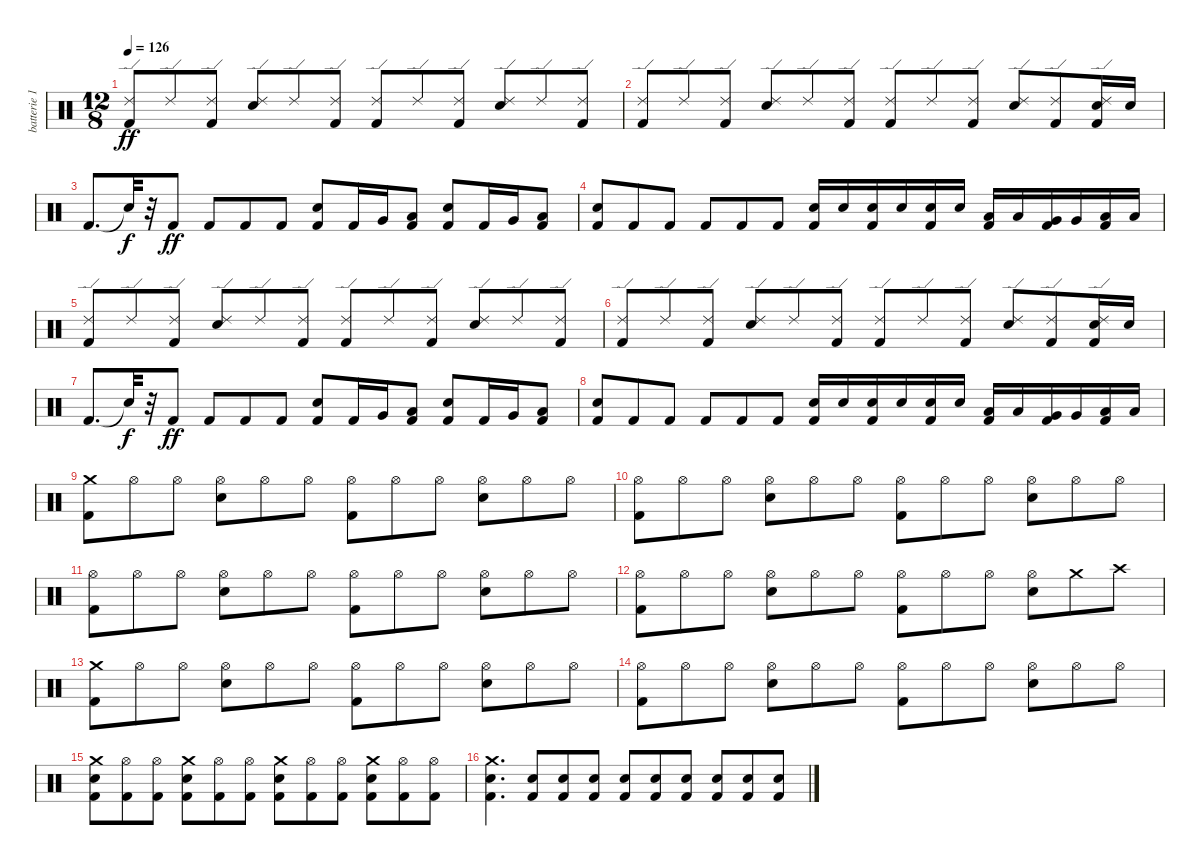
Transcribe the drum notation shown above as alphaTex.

\track ("batterie 1" "batterie 1") {instrument percussion}
\staff {score}
\articulation defaults
\ts (12 8)
\tempo 126
\clef neutral
\ks c
("Kick (hit) 2" "Ride (edge) 2").8{dy ff} "Ride (edge) 2".8 ("Kick (hit) 2" "Ride (edge) 2").8 ("Electric Snare (hit)" "Ride (edge) 2").8 "Ride (edge) 2".8 ("Kick (hit) 2" "Ride (edge) 2").8 ("Kick (hit) 2" "Ride (edge) 2").8 "Ride (edge) 2".8 ("Kick (hit) 2" "Ride (edge) 2").8 ("Electric Snare (hit)" "Ride (edge) 2").8 "Ride (edge) 2".8 ("Kick (hit) 2" "Ride (edge) 2").8 |
("Kick (hit) 2" "Ride (edge) 2").8 "Ride (edge) 2".8 ("Kick (hit) 2" "Ride (edge) 2").8 ("Electric Snare (hit)" "Ride (edge) 2").8 "Ride (edge) 2".8 ("Kick (hit) 2" "Ride (edge) 2").8 ("Kick (hit) 2" "Ride (edge) 2").8 "Ride (edge) 2".8 ("Kick (hit) 2" "Ride (edge) 2").8 ("Electric Snare (hit)" "Ride (edge) 2").8 ("Kick (hit) 2" "Ride (edge) 2").8 ("Kick (hit) 2" "Electric Snare (hit)" "Ride (edge) 2").16 "Electric Snare (hit)".16 |
"Kick (hit) 2".8{d} "Snare (hit)"{t}.32{dy f} r.32 "Kick (hit) 2".8{dy ff} "Kick (hit) 2".8 "Kick (hit) 2".8 "Kick (hit) 2".8 ("Kick (hit) 2" "Electric Snare (hit)").8 "Kick (hit) 2".16 "Very Low Tom (hit)".16 ("Kick (hit) 2" "Low Floor Tom (hit)").8 ("Kick (hit) 2" "Electric Snare (hit)").8 "Kick (hit) 2".16 "Very Low Tom (hit)".16 ("Kick (hit) 2" "Low Floor Tom (hit)").8 |
("Kick (hit) 2" "Electric Snare (hit)").8 "Kick (hit) 2".8 "Kick (hit) 2".8 "Kick (hit) 2".8 "Kick (hit) 2".8 "Kick (hit) 2".8 ("Kick (hit) 2" "Electric Snare (hit)").16 "Electric Snare (hit)".16 ("Kick (hit) 2" "Electric Snare (hit)").16 "Electric Snare (hit)".16 ("Kick (hit) 2" "Electric Snare (hit)").16 "Electric Snare (hit)".16 ("Kick (hit) 2" "Low Tom (hit)").16 "Low Tom (hit)".16 ("Kick (hit) 2" "Very Low Tom (hit)").16 "Very Low Tom (hit)".16 ("Kick (hit) 2" "Low Floor Tom (hit)").16 "Low Floor Tom (hit)".16 |
("Kick (hit) 2" "Ride (edge) 2").8 "Ride (edge) 2".8 ("Kick (hit) 2" "Ride (edge) 2").8 ("Electric Snare (hit)" "Ride (edge) 2").8 "Ride (edge) 2".8 ("Kick (hit) 2" "Ride (edge) 2").8 ("Kick (hit) 2" "Ride (edge) 2").8 "Ride (edge) 2".8 ("Kick (hit) 2" "Ride (edge) 2").8 ("Electric Snare (hit)" "Ride (edge) 2").8 "Ride (edge) 2".8 ("Kick (hit) 2" "Ride (edge) 2").8 |
("Kick (hit) 2" "Ride (edge) 2").8 "Ride (edge) 2".8 ("Kick (hit) 2" "Ride (edge) 2").8 ("Electric Snare (hit)" "Ride (edge) 2").8 "Ride (edge) 2".8 ("Kick (hit) 2" "Ride (edge) 2").8 ("Kick (hit) 2" "Ride (edge) 2").8 "Ride (edge) 2".8 ("Kick (hit) 2" "Ride (edge) 2").8 ("Electric Snare (hit)" "Ride (edge) 2").8 ("Kick (hit) 2" "Ride (edge) 2").8 ("Kick (hit) 2" "Electric Snare (hit)" "Ride (edge) 2").16 "Electric Snare (hit)".16 |
"Kick (hit) 2".8{d} "Snare (hit)"{t}.32{dy f} r.32 "Kick (hit) 2".8{dy ff} "Kick (hit) 2".8 "Kick (hit) 2".8 "Kick (hit) 2".8 ("Kick (hit) 2" "Electric Snare (hit)").8 "Kick (hit) 2".16 "Very Low Tom (hit)".16 ("Kick (hit) 2" "Low Floor Tom (hit)").8 ("Kick (hit) 2" "Electric Snare (hit)").8 "Kick (hit) 2".16 "Very Low Tom (hit)".16 ("Kick (hit) 2" "Low Floor Tom (hit)").8 |
("Kick (hit) 2" "Electric Snare (hit)").8 "Kick (hit) 2".8 "Kick (hit) 2".8 "Kick (hit) 2".8 "Kick (hit) 2".8 "Kick (hit) 2".8 ("Kick (hit) 2" "Electric Snare (hit)").16 "Electric Snare (hit)".16 ("Kick (hit) 2" "Electric Snare (hit)").16 "Electric Snare (hit)".16 ("Kick (hit) 2" "Electric Snare (hit)").16 "Electric Snare (hit)".16 ("Kick (hit) 2" "Low Tom (hit)").16 "Low Tom (hit)".16 ("Kick (hit) 2" "Very Low Tom (hit)").16 "Very Low Tom (hit)".16 ("Kick (hit) 2" "Low Floor Tom (hit)").16 "Low Floor Tom (hit)".16 |
("Kick (hit) 2" "Crash medium (hit)").8 "Hi-Hat (open)".8 "Hi-Hat (open)".8 ("Electric Snare (hit)" "Hi-Hat (open)").8 "Hi-Hat (open)".8 "Hi-Hat (open)".8 ("Kick (hit) 2" "Hi-Hat (open)").8 "Hi-Hat (open)".8 "Hi-Hat (open)".8 ("Electric Snare (hit)" "Hi-Hat (open)").8 "Hi-Hat (open)".8 "Hi-Hat (open)".8 |
("Kick (hit) 2" "Hi-Hat (open)").8 "Hi-Hat (open)".8 "Hi-Hat (open)".8 ("Electric Snare (hit)" "Hi-Hat (open)").8 "Hi-Hat (open)".8 "Hi-Hat (open)".8 ("Kick (hit) 2" "Hi-Hat (open)").8 "Hi-Hat (open)".8 "Hi-Hat (open)".8 ("Electric Snare (hit)" "Hi-Hat (open)").8 "Hi-Hat (open)".8 "Hi-Hat (open)".8 |
("Kick (hit) 2" "Hi-Hat (open)").8 "Hi-Hat (open)".8 "Hi-Hat (open)".8 ("Electric Snare (hit)" "Hi-Hat (open)").8 "Hi-Hat (open)".8 "Hi-Hat (open)".8 ("Kick (hit) 2" "Hi-Hat (open)").8 "Hi-Hat (open)".8 "Hi-Hat (open)".8 ("Electric Snare (hit)" "Hi-Hat (open)").8 "Hi-Hat (open)".8 "Hi-Hat (open)".8 |
("Kick (hit) 2" "Hi-Hat (open)").8 "Hi-Hat (open)".8 "Hi-Hat (open)".8 ("Electric Snare (hit)" "Hi-Hat (open)").8 "Hi-Hat (open)".8 "Hi-Hat (open)".8 ("Kick (hit) 2" "Hi-Hat (open)").8 "Hi-Hat (open)".8 "Hi-Hat (open)".8 ("Electric Snare (hit)" "Hi-Hat (open)").8 "Crash medium (hit)".8 "Crash high (hit)".8 |
("Kick (hit) 2" "Crash medium (hit)").8 "Hi-Hat (open)".8 "Hi-Hat (open)".8 ("Electric Snare (hit)" "Hi-Hat (open)").8 "Hi-Hat (open)".8 "Hi-Hat (open)".8 ("Kick (hit) 2" "Hi-Hat (open)").8 "Hi-Hat (open)".8 "Hi-Hat (open)".8 ("Electric Snare (hit)" "Hi-Hat (open)").8 "Hi-Hat (open)".8 "Hi-Hat (open)".8 |
("Kick (hit) 2" "Hi-Hat (open)").8 "Hi-Hat (open)".8 "Hi-Hat (open)".8 ("Electric Snare (hit)" "Hi-Hat (open)").8 "Hi-Hat (open)".8 "Hi-Hat (open)".8 ("Kick (hit) 2" "Hi-Hat (open)").8 "Hi-Hat (open)".8 "Hi-Hat (open)".8 ("Electric Snare (hit)" "Hi-Hat (open)").8 "Hi-Hat (open)".8 "Hi-Hat (open)".8 |
("Kick (hit) 2" "Electric Snare (hit)" "Crash medium (hit)").8 ("Kick (hit) 2" "Hi-Hat (open)").8 ("Kick (hit) 2" "Hi-Hat (open)").8 ("Kick (hit) 2" "Electric Snare (hit)" "Crash medium (hit)").8 ("Kick (hit) 2" "Hi-Hat (open)").8 ("Kick (hit) 2" "Hi-Hat (open)").8 ("Kick (hit) 2" "Electric Snare (hit)" "Crash medium (hit)").8 ("Kick (hit) 2" "Hi-Hat (open)").8 ("Kick (hit) 2" "Hi-Hat (open)").8 ("Kick (hit) 2" "Electric Snare (hit)" "Crash medium (hit)").8 ("Kick (hit) 2" "Hi-Hat (open)").8 ("Kick (hit) 2" "Hi-Hat (open)").8 |
("Kick (hit) 2" "Electric Snare (hit)" "Crash medium (hit)").4{d} ("Kick (hit) 2" "Electric Snare (hit)").8{volume 2} ("Kick (hit) 2" "Electric Snare (hit)").8{volume 3} ("Kick (hit) 2" "Electric Snare (hit)").8{volume 5} ("Kick (hit) 2" "Electric Snare (hit)").8{volume 7} ("Kick (hit) 2" "Electric Snare (hit)").8{volume 9} ("Kick (hit) 2" "Electric Snare (hit)").8{volume 10} ("Kick (hit) 2" "Electric Snare (hit)").8{volume 12} ("Kick (hit) 2" "Electric Snare (hit)").8{volume 14} ("Kick (hit) 2" "Electric Snare (hit)").8{volume 16}
